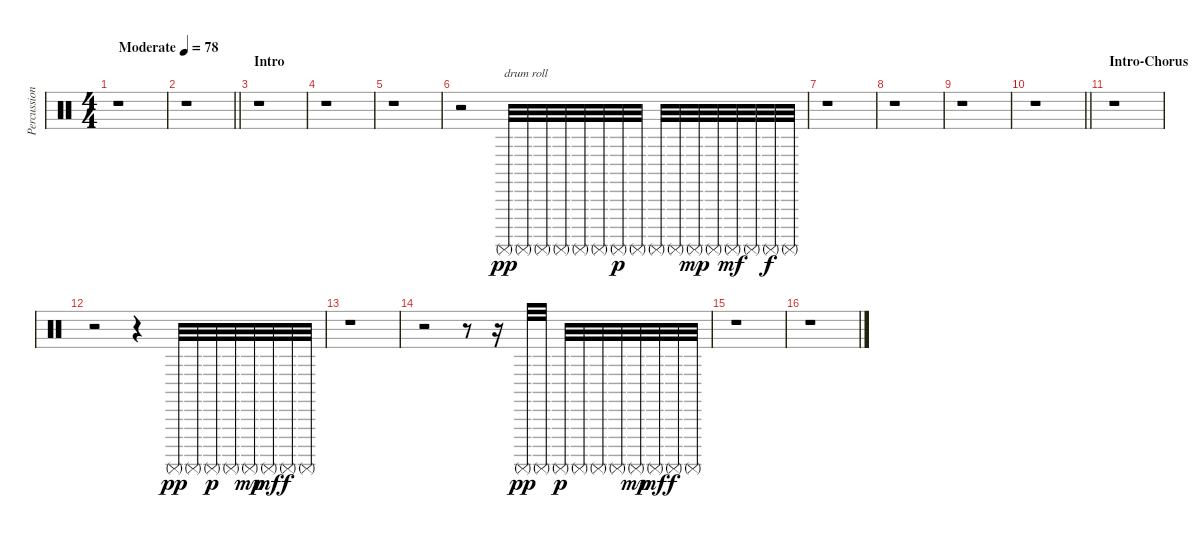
\track ("Percussion" "Percussion") {instrument percussion}
\staff {score}
\articulation defaults
\ts (4 4)
\tempo (78 "Moderate")
\clef neutral
\ks c
r.1{dy pp} |
\barLineRight lightlight
r.1 |
\section ("" "Intro")
r.1 |
r.1 |
r.1 |
r.2 "Surdo (mute)".32{txt "drum roll"} "Surdo (mute)".32 "Surdo (mute)".32 "Surdo (mute)".32 "Surdo (mute)".32 "Surdo (mute)".32 "Surdo (mute)".32{dy p} "Surdo (mute)".32 "Surdo (mute)".32 "Surdo (mute)".32 "Surdo (mute)".32{dy mp} "Surdo (mute)".32 "Surdo (mute)".32{dy mf} "Surdo (mute)".32 "Surdo (mute)".32{dy f} "Surdo (mute)".32 |
r.1 |
r.1 |
r.1 |
\barLineRight lightlight
r.1 |
\section ("" "Intro-Chorus")
r.1 |
r.2 r.4 "Surdo (mute)".32{dy pp} "Surdo (mute)".32 "Surdo (mute)".32{dy p} "Surdo (mute)".32 "Surdo (mute)".32{dy mp} "Surdo (mute)".32{dy mf} "Surdo (mute)".32{dy f} "Surdo (mute)".32 |
r.1 |
r.2 r.8 r.16 "Surdo (mute)".32{dy pp} "Surdo (mute)".32 "Surdo (mute)".32{dy p} "Surdo (mute)".32 "Surdo (mute)".32 "Surdo (mute)".32 "Surdo (mute)".32{dy mp} "Surdo (mute)".32{dy mf} "Surdo (mute)".32{dy f} "Surdo (mute)".32 |
r.1 |
r.1
